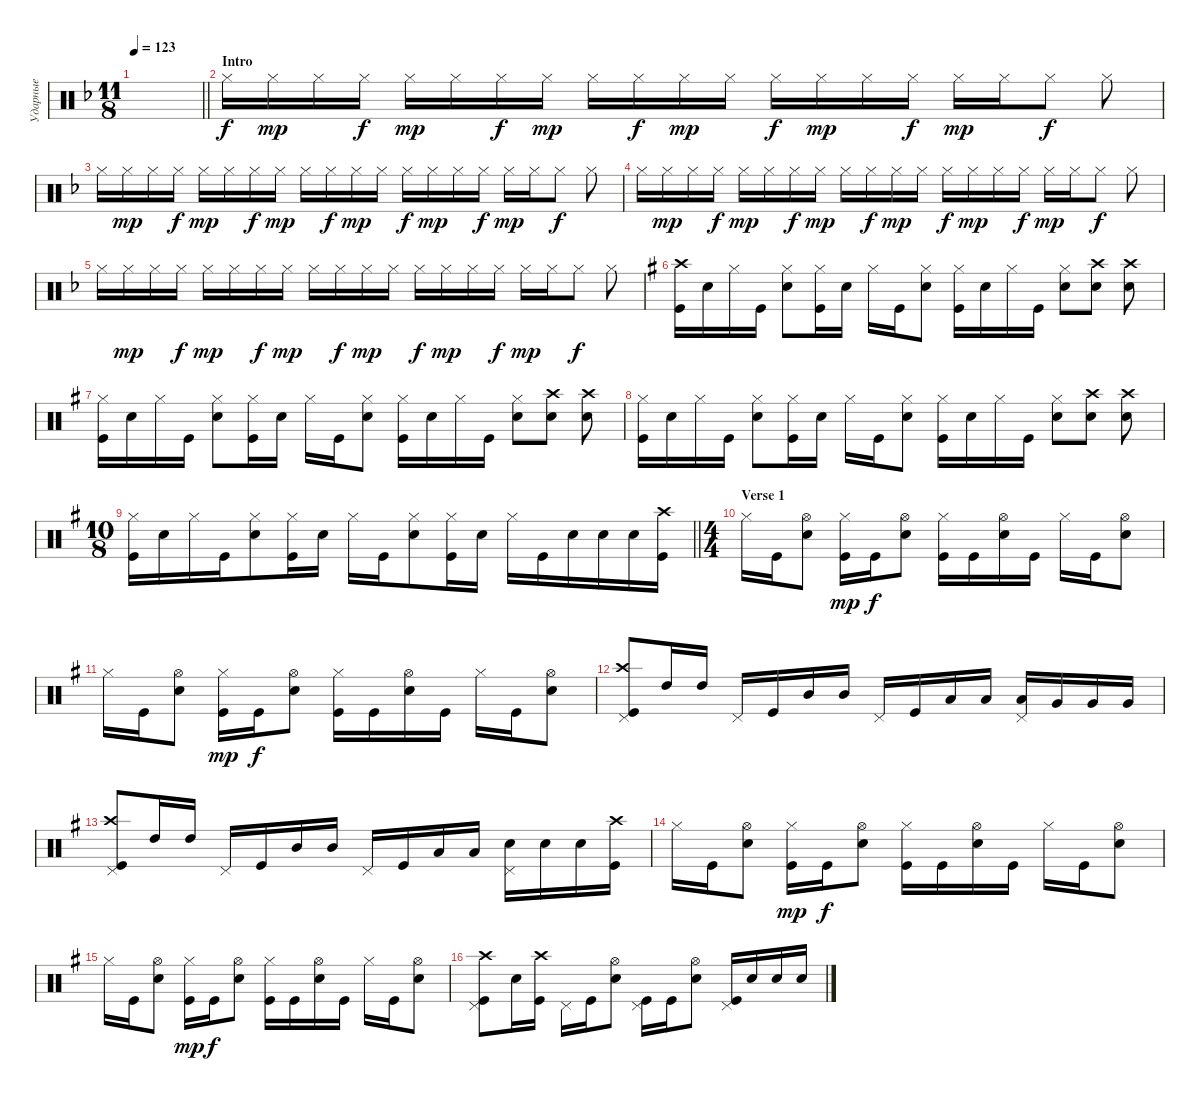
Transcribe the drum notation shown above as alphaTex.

\track ("Ударные" "Ударные") {instrument percussion}
\staff {score}
\articulation defaults
\ts (11 8)
\tempo 123
\clef neutral
\barLineRight lightlight
\ks dminor
|
\section ("" "Intro")
"Hi-Hat (closed)".16 "Hi-Hat (closed)".16{dy mp} "Hi-Hat (closed)".16 "Hi-Hat (closed)".16{dy f} "Hi-Hat (closed)".16{dy mp} "Hi-Hat (closed)".16 "Hi-Hat (closed)".16{dy f} "Hi-Hat (closed)".16{dy mp} "Hi-Hat (closed)".16 "Hi-Hat (closed)".16{dy f} "Hi-Hat (closed)".16{dy mp} "Hi-Hat (closed)".16 "Hi-Hat (closed)".16{dy f} "Hi-Hat (closed)".16{dy mp} "Hi-Hat (closed)".16 "Hi-Hat (closed)".16{dy f} "Hi-Hat (closed)".16{dy mp} "Hi-Hat (closed)".16 "Hi-Hat (closed)".8{dy f} "Hi-Hat (closed)".8 |
"Hi-Hat (closed)".16 "Hi-Hat (closed)".16{dy mp} "Hi-Hat (closed)".16 "Hi-Hat (closed)".16{dy f} "Hi-Hat (closed)".16{dy mp} "Hi-Hat (closed)".16 "Hi-Hat (closed)".16{dy f} "Hi-Hat (closed)".16{dy mp} "Hi-Hat (closed)".16 "Hi-Hat (closed)".16{dy f} "Hi-Hat (closed)".16{dy mp} "Hi-Hat (closed)".16 "Hi-Hat (closed)".16{dy f} "Hi-Hat (closed)".16{dy mp} "Hi-Hat (closed)".16 "Hi-Hat (closed)".16{dy f} "Hi-Hat (closed)".16{dy mp} "Hi-Hat (closed)".16 "Hi-Hat (closed)".8{dy f} "Hi-Hat (closed)".8 |
"Hi-Hat (closed)".16 "Hi-Hat (closed)".16{dy mp} "Hi-Hat (closed)".16 "Hi-Hat (closed)".16{dy f} "Hi-Hat (closed)".16{dy mp} "Hi-Hat (closed)".16 "Hi-Hat (closed)".16{dy f} "Hi-Hat (closed)".16{dy mp} "Hi-Hat (closed)".16 "Hi-Hat (closed)".16{dy f} "Hi-Hat (closed)".16{dy mp} "Hi-Hat (closed)".16 "Hi-Hat (closed)".16{dy f} "Hi-Hat (closed)".16{dy mp} "Hi-Hat (closed)".16 "Hi-Hat (closed)".16{dy f} "Hi-Hat (closed)".16{dy mp} "Hi-Hat (closed)".16 "Hi-Hat (closed)".8{dy f} "Hi-Hat (closed)".8 |
"Hi-Hat (closed)".16 "Hi-Hat (closed)".16{dy mp} "Hi-Hat (closed)".16 "Hi-Hat (closed)".16{dy f} "Hi-Hat (closed)".16{dy mp} "Hi-Hat (closed)".16 "Hi-Hat (closed)".16{dy f} "Hi-Hat (closed)".16{dy mp} "Hi-Hat (closed)".16 "Hi-Hat (closed)".16{dy f} "Hi-Hat (closed)".16{dy mp} "Hi-Hat (closed)".16 "Hi-Hat (closed)".16{dy f} "Hi-Hat (closed)".16{dy mp} "Hi-Hat (closed)".16 "Hi-Hat (closed)".16{dy f} "Hi-Hat (closed)".16{dy mp} "Hi-Hat (closed)".16 "Hi-Hat (closed)".8{dy f} "Hi-Hat (closed)".8 |
\ks eminor
("Kick (hit)" "Crash high (hit)").16 "Snare (hit) 2".16 "Hi-Hat (closed)".16 "Kick (hit)".16 ("Snare (hit) 2" "Hi-Hat (closed)").8 ("Kick (hit)" "Hi-Hat (closed)").16 "Snare (hit) 2".16 "Hi-Hat (closed)".16 "Kick (hit)".16 ("Snare (hit) 2" "Hi-Hat (closed)").8 ("Kick (hit)" "Hi-Hat (closed)").16 "Snare (hit) 2".16 "Hi-Hat (closed)".16 "Kick (hit)".16 ("Snare (hit) 2" "Hi-Hat (closed)").8 ("Snare (hit) 2" "Crash high (hit)").8 ("Snare (hit) 2" "Crash high (hit)").8 |
("Kick (hit)" "Hi-Hat (closed)").16 "Snare (hit) 2".16 "Hi-Hat (closed)".16 "Kick (hit)".16 ("Snare (hit) 2" "Hi-Hat (closed)").8 ("Kick (hit)" "Hi-Hat (closed)").16 "Snare (hit) 2".16 "Hi-Hat (closed)".16 "Kick (hit)".16 ("Snare (hit) 2" "Hi-Hat (closed)").8 ("Kick (hit)" "Hi-Hat (closed)").16 "Snare (hit) 2".16 "Hi-Hat (closed)".16 "Kick (hit)".16 ("Snare (hit) 2" "Hi-Hat (closed)").8 ("Snare (hit) 2" "Crash high (hit)").8 ("Snare (hit) 2" "Crash high (hit)").8 |
("Kick (hit)" "Hi-Hat (closed)").16 "Snare (hit) 2".16 "Hi-Hat (closed)".16 "Kick (hit)".16 ("Snare (hit) 2" "Hi-Hat (closed)").8 ("Kick (hit)" "Hi-Hat (closed)").16 "Snare (hit) 2".16 "Hi-Hat (closed)".16 "Kick (hit)".16 ("Snare (hit) 2" "Hi-Hat (closed)").8 ("Kick (hit)" "Hi-Hat (closed)").16 "Snare (hit) 2".16 "Hi-Hat (closed)".16 "Kick (hit)".16 ("Snare (hit) 2" "Hi-Hat (closed)").8 ("Snare (hit) 2" "Crash high (hit)").8 ("Snare (hit) 2" "Crash high (hit)").8 |
\ts (10 8)
\barLineRight lightlight
("Kick (hit)" "Hi-Hat (closed)").16 "Snare (hit) 2".16 "Hi-Hat (closed)".16 "Kick (hit)".16 ("Snare (hit) 2" "Hi-Hat (closed)").8 ("Kick (hit)" "Hi-Hat (closed)").16 "Snare (hit) 2".16 "Hi-Hat (closed)".16 "Kick (hit)".16 ("Snare (hit) 2" "Hi-Hat (closed)").8 ("Kick (hit)" "Hi-Hat (closed)").16 "Snare (hit) 2".16 "Hi-Hat (closed)".16 "Kick (hit)".16 "Snare (hit) 2".16 "Snare (hit) 2".16 "Snare (hit) 2".16 ("Kick (hit)" "Crash high (hit)").16 |
\ts (4 4)
\section ("" "Verse 1")
"Hi-Hat (closed)".16 "Kick (hit)".16 ("Snare (hit) 2" "Hi-Hat (open)").8 ("Kick (hit)" "Hi-Hat (closed)").16{dy mp} "Kick (hit)".16{dy f} ("Snare (hit) 2" "Hi-Hat (open)").8 ("Kick (hit)" "Hi-Hat (closed)").16 "Kick (hit)".16 ("Snare (hit) 2" "Hi-Hat (open)").16 "Kick (hit)".16 "Hi-Hat (closed)".16 "Kick (hit)".16 ("Snare (hit) 2" "Hi-Hat (open)").8 |
"Hi-Hat (closed)".16 "Kick (hit)".16 ("Snare (hit) 2" "Hi-Hat (open)").8 ("Kick (hit)" "Hi-Hat (closed)").16{dy mp} "Kick (hit)".16{dy f} ("Snare (hit) 2" "Hi-Hat (open)").8 ("Kick (hit)" "Hi-Hat (closed)").16 "Kick (hit)".16 ("Snare (hit) 2" "Hi-Hat (open)").16 "Kick (hit)".16 "Hi-Hat (closed)".16 "Kick (hit)".16 ("Snare (hit) 2" "Hi-Hat (open)").8 |
("Kick (hit)" "Crash high (hit)" "Pedal Hi-Hat (hit)").8 "High Tom (hit)".16 "High Tom (hit)".16 "Pedal Hi-Hat (hit)".16 "Kick (hit)".16 "Mid Tom (hit)".16 "Mid Tom (hit)".16 "Pedal Hi-Hat (hit)".16 "Kick (hit)".16 "Low Tom (hit)".16 "Low Tom (hit)".16 ("Low Tom (hit)" "Pedal Hi-Hat (hit)").16 "Very Low Tom (hit)".16 "Very Low Tom (hit)".16 "Very Low Tom (hit)".16 |
("Kick (hit)" "Crash high (hit)" "Pedal Hi-Hat (hit)").8 "High Tom (hit)".16 "High Tom (hit)".16 "Pedal Hi-Hat (hit)".16 "Kick (hit)".16 "Mid Tom (hit)".16 "Mid Tom (hit)".16 "Pedal Hi-Hat (hit)".16 "Kick (hit)".16 "Low Tom (hit)".16 "Low Tom (hit)".16 ("Snare (hit) 2" "Pedal Hi-Hat (hit)").16 "Snare (hit) 2".16 "Snare (hit) 2".16 ("Kick (hit)" "Crash high (hit)").16 |
"Hi-Hat (closed)".16 "Kick (hit)".16 ("Snare (hit) 2" "Hi-Hat (open)").8 ("Kick (hit)" "Hi-Hat (closed)").16{dy mp} "Kick (hit)".16{dy f} ("Snare (hit) 2" "Hi-Hat (open)").8 ("Kick (hit)" "Hi-Hat (closed)").16 "Kick (hit)".16 ("Snare (hit) 2" "Hi-Hat (open)").16 "Kick (hit)".16 "Hi-Hat (closed)".16 "Kick (hit)".16 ("Snare (hit) 2" "Hi-Hat (open)").8 |
"Hi-Hat (closed)".16 "Kick (hit)".16 ("Snare (hit) 2" "Hi-Hat (open)").8 ("Kick (hit)" "Hi-Hat (closed)").16{dy mp} "Kick (hit)".16{dy f} ("Snare (hit) 2" "Hi-Hat (open)").8 ("Kick (hit)" "Hi-Hat (closed)").16 "Kick (hit)".16 ("Snare (hit) 2" "Hi-Hat (open)").16 "Kick (hit)".16 "Hi-Hat (closed)".16 "Kick (hit)".16 ("Snare (hit) 2" "Hi-Hat (open)").8 |
("Kick (hit)" "Crash high (hit)" "Pedal Hi-Hat (hit)").8 "Snare (hit) 2".16 ("Kick (hit)" "Crash high (hit)").16 "Pedal Hi-Hat (hit)".16 "Kick (hit)".16 ("Snare (hit) 2" "Hi-Hat (open)").8 ("Kick (hit)" "Pedal Hi-Hat (hit)").16 "Kick (hit)".16 ("Snare (hit) 2" "Hi-Hat (open)").8 ("Kick (hit)" "Pedal Hi-Hat (hit)").16 "Snare (hit) 2".16 "Snare (hit) 2".16 "Snare (hit) 2".16
